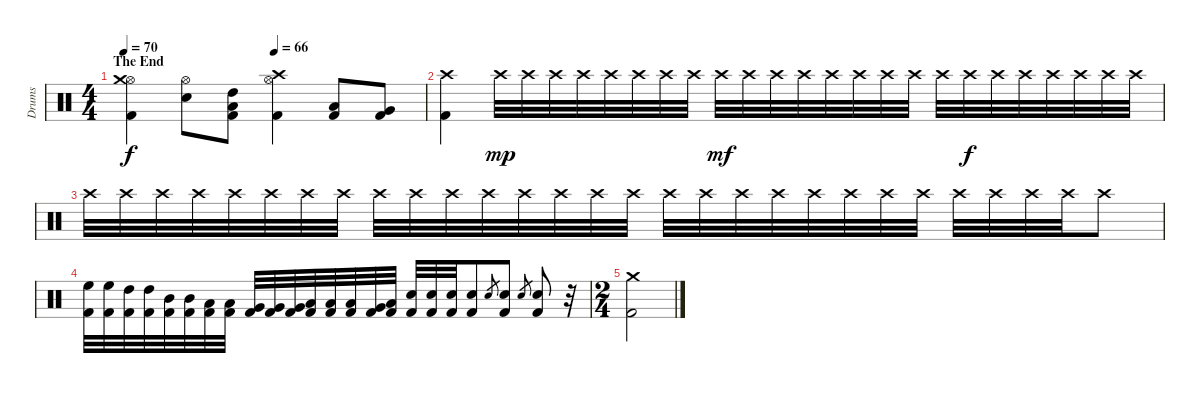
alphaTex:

\track ("Drums" "Drums") {instrument percussion}
\staff {score}
\articulation defaults
\ts (4 4)
\section ("" "The End")
\tempo 70
\tempo (66 0.5)
\clef neutral
\ks c
("Kick (hit) 2" "Hi-Hat (open)" "Crash medium (hit)").4{dy f} ("Electric Snare (hit)" "Hi-Hat (open)").8 ("Kick (hit) 2" "High Tom (hit)" "Low Floor Tom (hit)").8 ("Kick (hit) 2" "Hi-Hat (open)" "Crash high (hit)").4 ("Kick (hit) 2" "Low Tom (hit)").8 ("Kick (hit) 2" "Very Low Tom (hit)").8 |
("Kick (hit) 2" "Crash high (hit)").4 "Crash high (hit)".32{dy mp} "Crash high (hit)".32 "Crash high (hit)".32 "Crash high (hit)".32 "Crash high (hit)".32 "Crash high (hit)".32 "Crash high (hit)".32 "Crash high (hit)".32 "Crash high (hit)".32{dy mf} "Crash high (hit)".32 "Crash high (hit)".32 "Crash high (hit)".32 "Crash high (hit)".32 "Crash high (hit)".32 "Crash high (hit)".32 "Crash high (hit)".32 "Crash high (hit)".32 "Crash high (hit)".32{dy f} "Crash high (hit)".32 "Crash high (hit)".32 "Crash high (hit)".32 "Crash high (hit)".32 "Crash high (hit)".32 "Crash high (hit)".32 |
"Crash high (hit)".32 "Crash high (hit)".32 "Crash high (hit)".32 "Crash high (hit)".32 "Crash high (hit)".32 "Crash high (hit)".32 "Crash high (hit)".32 "Crash high (hit)".32 "Crash high (hit)".32 "Crash high (hit)".32 "Crash high (hit)".32 "Crash high (hit)".32 "Crash high (hit)".32 "Crash high (hit)".32 "Crash high (hit)".32 "Crash high (hit)".32 "Crash high (hit)".32 "Crash high (hit)".32 "Crash high (hit)".32 "Crash high (hit)".32 "Crash high (hit)".32 "Crash high (hit)".32 "Crash high (hit)".32 "Crash high (hit)".32 "Crash high (hit)".32 "Crash high (hit)".32 "Crash high (hit)".32 "Crash high (hit)".32 "Crash high (hit)".8 |
("Kick (hit) 2" "High Floor Tom (hit)").32 ("Kick (hit) 2" "High Floor Tom (hit)").32 ("Kick (hit) 2" "High Tom (hit)").32 ("Kick (hit) 2" "High Tom (hit)").32 ("Kick (hit) 2" "Mid Tom (hit)").32 ("Kick (hit) 2" "Mid Tom (hit)").32 ("Kick (hit) 2" "Low Tom (hit)").32 ("Kick (hit) 2" "Low Tom (hit)").32 ("Kick (hit) 2" "Very Low Tom (hit)").32 ("Kick (hit) 2" "Very Low Tom (hit)").32 ("Kick (hit) 2" "Very Low Tom (hit)").32 ("Kick (hit) 2" "Low Floor Tom (hit)").32 ("Kick (hit) 2" "Low Floor Tom (hit)").32 ("Kick (hit) 2" "Low Tom (hit)").32 ("Kick (hit) 2" "Very Low Tom (hit)").32 ("Kick (hit) 2" "Low Floor Tom (hit)").32 ("Kick (hit) 2" "Electric Snare (hit)").32 ("Kick (hit) 2" "Electric Snare (hit)").32 ("Kick (hit) 2" "Electric Snare (hit)").32 ("Kick (hit) 2" "Electric Snare (hit)").8 "Electric Snare (hit)".8{gr} ("Kick (hit) 2" "Electric Snare (hit)").8 "Electric Snare (hit)".8{gr} ("Kick (hit) 2" "Electric Snare (hit)").8 r.32 |
\ts (2 4)
("Kick (hit) 2" "Crash medium (hit)").2
